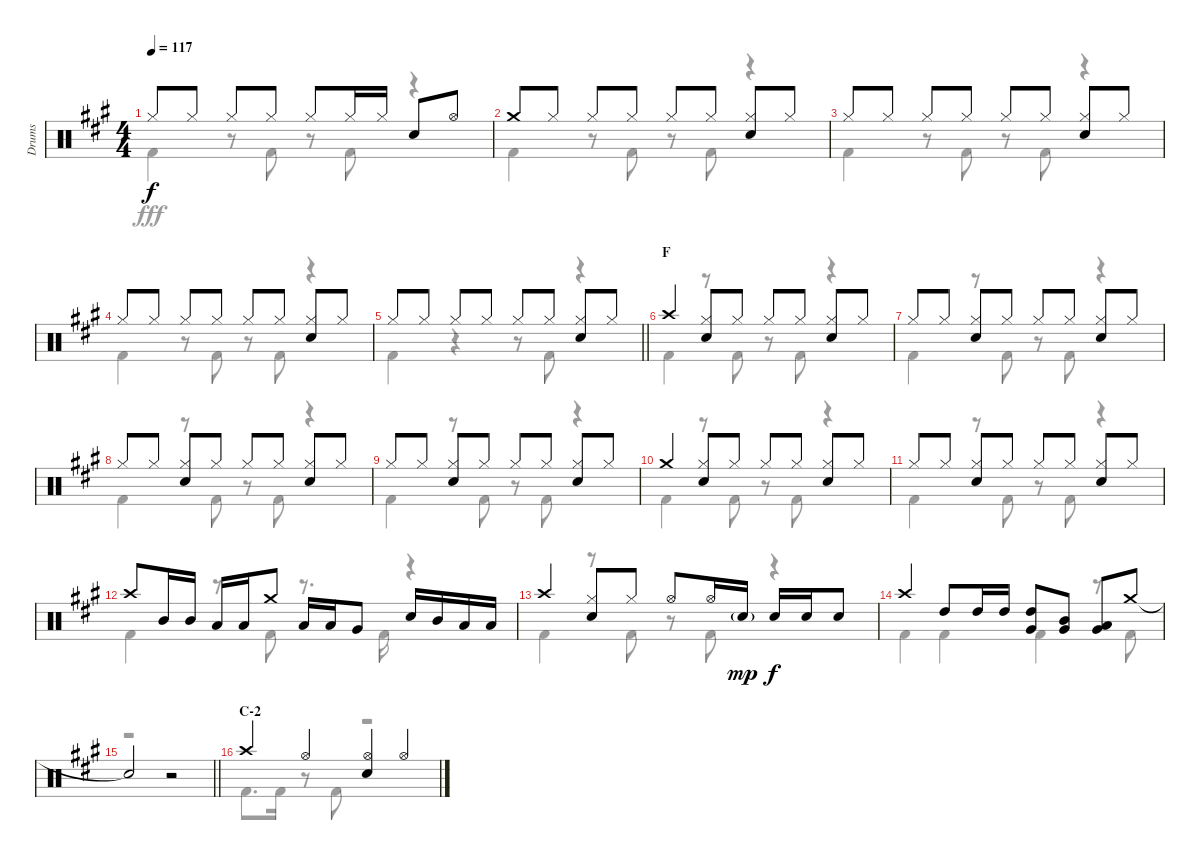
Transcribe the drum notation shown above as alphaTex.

\track ("Drums" "Drums") {instrument percussion}
\staff {score}
\articulation defaults
\voice
\ts (4 4)
\tempo 117
\clef neutral
\ks a "Hi-Hat (closed)".8{dy f} "Hi-Hat (closed)".8 "Hi-Hat (closed)".8 "Hi-Hat (closed)".8 "Hi-Hat (closed)".8 "Hi-Hat (closed)".16 "Hi-Hat (closed)".16 "Snare (hit) 2".8 "Hi-Hat (open)".8
|
"Crash medium (hit)".8 "Hi-Hat (closed)".8 "Hi-Hat (closed)".8 "Hi-Hat (closed)".8 "Hi-Hat (closed)".8 "Hi-Hat (closed)".8 ("Hi-Hat (closed)" "Snare (hit) 2").8 "Hi-Hat (closed)".8 |
"Hi-Hat (closed)".8 "Hi-Hat (closed)".8 "Hi-Hat (closed)".8 "Hi-Hat (closed)".8 "Hi-Hat (closed)".8 "Hi-Hat (closed)".8 ("Hi-Hat (closed)" "Snare (hit) 2").8 "Hi-Hat (closed)".8 |
"Hi-Hat (closed)".8 "Hi-Hat (closed)".8 "Hi-Hat (closed)".8 "Hi-Hat (closed)".8 "Hi-Hat (closed)".8 "Hi-Hat (closed)".8 ("Hi-Hat (closed)" "Snare (hit) 2").8 "Hi-Hat (closed)".8 |
\barLineRight lightlight "Hi-Hat (closed)".8 "Hi-Hat (closed)".8 "Hi-Hat (closed)".8 "Hi-Hat (closed)".8 "Hi-Hat (closed)".8 "Hi-Hat (closed)".8
("Hi-Hat (closed)" "Snare (hit) 2").8 "Hi-Hat (closed)".8 |
\section ("" "F")
"Crash high (hit)".4 ("Hi-Hat (closed)" "Snare (hit) 2").8 "Hi-Hat (closed)".8 "Hi-Hat (closed)".8 "Hi-Hat (closed)".8 ("Hi-Hat (closed)" "Snare (hit) 2").8 "Hi-Hat (closed)".8 |
"Hi-Hat (closed)".8 "Hi-Hat (closed)".8 ("Hi-Hat (closed)" "Snare (hit) 2").8 "Hi-Hat (closed)".8 "Hi-Hat (closed)".8 "Hi-Hat (closed)".8 ("Hi-Hat (closed)" "Snare (hit) 2").8 "Hi-Hat (closed)".8 |
"Hi-Hat (closed)".8 "Hi-Hat (closed)".8 ("Hi-Hat (closed)" "Snare (hit) 2").8 "Hi-Hat (closed)".8 "Hi-Hat (closed)".8 "Hi-Hat (closed)".8 ("Hi-Hat (closed)" "Snare (hit) 2").8 "Hi-Hat (closed)".8 |
"Hi-Hat (closed)".8 "Hi-Hat (closed)".8 ("Hi-Hat (closed)" "Snare (hit) 2").8 "Hi-Hat (closed)".8 "Hi-Hat (closed)".8 "Hi-Hat (closed)".8 ("Hi-Hat (closed)" "Snare (hit) 2").8 "Hi-Hat (closed)".8 |
"Crash medium (hit)".4 ("Hi-Hat (closed)" "Snare (hit) 2").8 "Hi-Hat (closed)".8 "Hi-Hat (closed)".8 "Hi-Hat (closed)".8 ("Hi-Hat (closed)" "Snare (hit) 2").8 "Hi-Hat (closed)".8 |
"Hi-Hat (closed)".8 "Hi-Hat (closed)".8 ("Hi-Hat (closed)" "Snare (hit) 2").8 "Hi-Hat (closed)".8 "Hi-Hat (closed)".8 "Hi-Hat (closed)".8 ("Hi-Hat (closed)" "Snare (hit) 2").8 "Hi-Hat (closed)".8 |
"Crash high (hit)".8 "Mid Tom (hit)".16 "Mid Tom (hit)".16 "Low Tom (hit)".16 "Low Tom (hit)".16 "Crash medium (hit)".8 "Low Tom (hit)".16 "Low Tom (hit)".16 "Very Low Tom (hit)".8 "Snare (hit) 2".16 "Mid Tom (hit)".16 "Low Tom (hit)".16 "Low Tom (hit)".16 |
"Crash high (hit)".4 ("Hi-Hat (closed)" "Snare (hit) 2").8 "Hi-Hat (closed)".8 "Hi-Hat (open)".8 "Hi-Hat (open)".16 "Snare (hit) 2"{g}.16{dy mp} "Snare (hit) 2".16{dy f} "Snare (hit) 2".16 "Snare (hit) 2".8 |
"Crash high (hit)".4 "High Tom (hit)".8 "High Tom (hit)".16 "High Tom (hit)".16 ("High Tom (hit)" "Very Low Tom (hit)").8 ("Mid Tom (hit)" "Very Low Tom (hit)").8 ("Low Tom (hit)" "Very Low Tom (hit)").8 "Crash medium (hit)".8 |
\barLineRight lightlight "Snare (hit)"{t}.2
r.2 |
\section ("" "C-2")
"Crash high (hit)".4 "Hi-Hat (open)".4 ("Hi-Hat (open)" "Snare (hit) 2").4 "Hi-Hat (open)".4
\voice
\clef neutral
\ottava regular
\simile none
\ks a "Kick (hit) 2".4{dy fff}
r.8 "Kick (hit) 2".8 r.8 "Kick (hit) 2".8 r.4 |
"Kick (hit) 2".4 r.8 "Kick (hit) 2".8 r.8 "Kick (hit) 2".8 r.4 |
"Kick (hit) 2".4 r.8 "Kick (hit) 2".8 r.8 "Kick (hit) 2".8 r.4 |
"Kick (hit) 2".4 r.8 "Kick (hit) 2".8 r.8 "Kick (hit) 2".8 r.4 |
\barLineRight lightlight "Kick (hit) 2".4
r.4 r.8 "Kick (hit) 2".8 r.4 |
"Kick (hit) 2".4 r.8 "Kick (hit) 2".8 r.8 "Kick (hit) 2".8 r.4 |
"Kick (hit) 2".4 r.8 "Kick (hit) 2".8 r.8 "Kick (hit) 2".8 r.4 |
"Kick (hit) 2".4 r.8 "Kick (hit) 2".8 r.8 "Kick (hit) 2".8 r.4 |
"Kick (hit) 2".4 r.8 "Kick (hit) 2".8 r.8 "Kick (hit) 2".8 r.4 |
"Kick (hit) 2".4 r.8 "Kick (hit) 2".8 r.8 "Kick (hit) 2".8 r.4 |
"Kick (hit) 2".4 r.8 "Kick (hit) 2".8 r.8 "Kick (hit) 2".8 r.4 |
"Kick (hit) 2".4 r.8 "Kick (hit) 2".8 r.8{d} "Kick (hit) 2".16 r.4 |
"Kick (hit) 2".4 r.8 "Kick (hit) 2".8 r.8 "Kick (hit) 2".8 r.4 |
"Kick (hit) 2".4 "Kick (hit) 2".4 "Kick (hit) 2".4 r.8 "Kick (hit) 2".8 |
\barLineRight lightlight
r.1 |
"Kick (hit) 2".8{d} "Kick (hit) 2".16 r.8 "Kick (hit) 2".8 r.2
